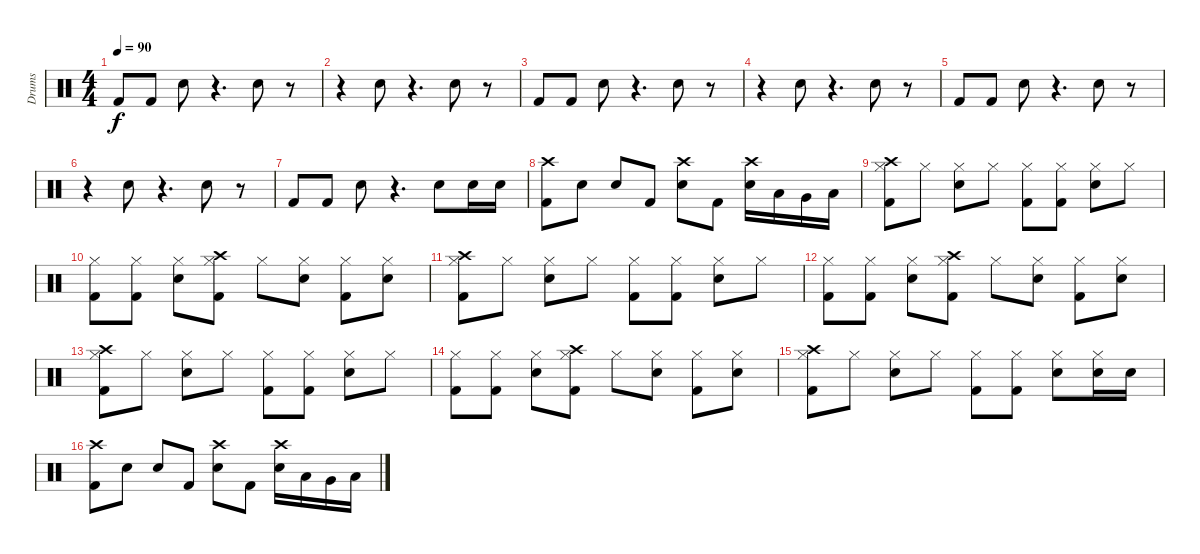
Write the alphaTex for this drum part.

\track ("Drums" "Drums") {instrument percussion}
\staff {score}
\articulation defaults
\ts (4 4)
\tempo 90
\clef neutral
\ks c "Kick (hit) 2".8{dy f} "Kick (hit) 2".8 "Electric Snare (hit)".8
r.4{d} "Electric Snare (hit)".8 r.8 |
r.4 "Electric Snare (hit)".8 r.4{d} "Electric Snare (hit)".8 r.8 |
"Kick (hit) 2".8 "Kick (hit) 2".8 "Electric Snare (hit)".8 r.4{d} "Electric Snare (hit)".8 r.8 |
r.4 "Electric Snare (hit)".8 r.4{d} "Electric Snare (hit)".8 r.8 |
"Kick (hit) 2".8 "Kick (hit) 2".8 "Electric Snare (hit)".8 r.4{d} "Electric Snare (hit)".8 r.8 |
r.4 "Electric Snare (hit)".8 r.4{d} "Electric Snare (hit)".8 r.8 |
"Kick (hit) 2".8 "Kick (hit) 2".8 "Electric Snare (hit)".8 r.4{d} "Electric Snare (hit)".8 "Electric Snare (hit)".16 "Electric Snare (hit)".16 |
("Crash high (hit)" "Kick (hit) 2").8 "Electric Snare (hit)".8 "Electric Snare (hit)".8 "Kick (hit) 2".8 ("Crash high (hit)" "Electric Snare (hit)").8 "Kick (hit) 2".8 ("Crash high (hit)" "Electric Snare (hit)").16 "Low Tom (hit)".16 "Very Low Tom (hit)".16 "Low Floor Tom (hit)".16 |
("Crash high (hit)" "Hi-Hat (closed)" "Kick (hit) 2").8 "Hi-Hat (closed)".8 ("Hi-Hat (closed)" "Electric Snare (hit)").8 "Hi-Hat (closed)".8 ("Hi-Hat (closed)" "Kick (hit) 2").8 ("Hi-Hat (closed)" "Kick (hit) 2").8 ("Hi-Hat (closed)" "Electric Snare (hit)").8 "Hi-Hat (closed)".8 |
("Hi-Hat (closed)" "Kick (hit) 2").8 ("Hi-Hat (closed)" "Kick (hit) 2").8 ("Hi-Hat (closed)" "Electric Snare (hit)").8 ("Crash high (hit)" "Hi-Hat (closed)" "Kick (hit) 2").8 "Hi-Hat (closed)".8 ("Hi-Hat (closed)" "Electric Snare (hit)").8 ("Hi-Hat (closed)" "Kick (hit) 2").8 ("Hi-Hat (closed)" "Electric Snare (hit)").8 |
("Crash high (hit)" "Hi-Hat (closed)" "Kick (hit) 2").8 "Hi-Hat (closed)".8 ("Hi-Hat (closed)" "Electric Snare (hit)").8 "Hi-Hat (closed)".8 ("Hi-Hat (closed)" "Kick (hit) 2").8 ("Hi-Hat (closed)" "Kick (hit) 2").8 ("Hi-Hat (closed)" "Electric Snare (hit)").8 "Hi-Hat (closed)".8 |
("Hi-Hat (closed)" "Kick (hit) 2").8 ("Hi-Hat (closed)" "Kick (hit) 2").8 ("Hi-Hat (closed)" "Electric Snare (hit)").8 ("Crash high (hit)" "Hi-Hat (closed)" "Kick (hit) 2").8 "Hi-Hat (closed)".8 ("Hi-Hat (closed)" "Electric Snare (hit)").8 ("Hi-Hat (closed)" "Kick (hit) 2").8 ("Hi-Hat (closed)" "Electric Snare (hit)").8 |
("Crash high (hit)" "Hi-Hat (closed)" "Kick (hit) 2").8 "Hi-Hat (closed)".8 ("Hi-Hat (closed)" "Electric Snare (hit)").8 "Hi-Hat (closed)".8 ("Hi-Hat (closed)" "Kick (hit) 2").8 ("Hi-Hat (closed)" "Kick (hit) 2").8 ("Hi-Hat (closed)" "Electric Snare (hit)").8 "Hi-Hat (closed)".8 |
("Hi-Hat (closed)" "Kick (hit) 2").8 ("Hi-Hat (closed)" "Kick (hit) 2").8 ("Hi-Hat (closed)" "Electric Snare (hit)").8 ("Crash high (hit)" "Hi-Hat (closed)" "Kick (hit) 2").8 "Hi-Hat (closed)".8 ("Hi-Hat (closed)" "Electric Snare (hit)").8 ("Hi-Hat (closed)" "Kick (hit) 2").8 ("Hi-Hat (closed)" "Electric Snare (hit)").8 |
("Crash high (hit)" "Hi-Hat (closed)" "Kick (hit) 2").8 "Hi-Hat (closed)".8 ("Hi-Hat (closed)" "Electric Snare (hit)").8 "Hi-Hat (closed)".8 ("Hi-Hat (closed)" "Kick (hit) 2").8 ("Hi-Hat (closed)" "Kick (hit) 2").8 ("Hi-Hat (closed)" "Electric Snare (hit)").8 ("Electric Snare (hit)" "Hi-Hat (closed)").16 "Electric Snare (hit)".16 |
("Crash high (hit)" "Kick (hit) 2").8 "Electric Snare (hit)".8 "Electric Snare (hit)".8 "Kick (hit) 2".8 ("Crash high (hit)" "Electric Snare (hit)").8 "Kick (hit) 2".8 ("Crash high (hit)" "Electric Snare (hit)").16 "Low Tom (hit)".16 "Very Low Tom (hit)".16 "Low Floor Tom (hit)".16
